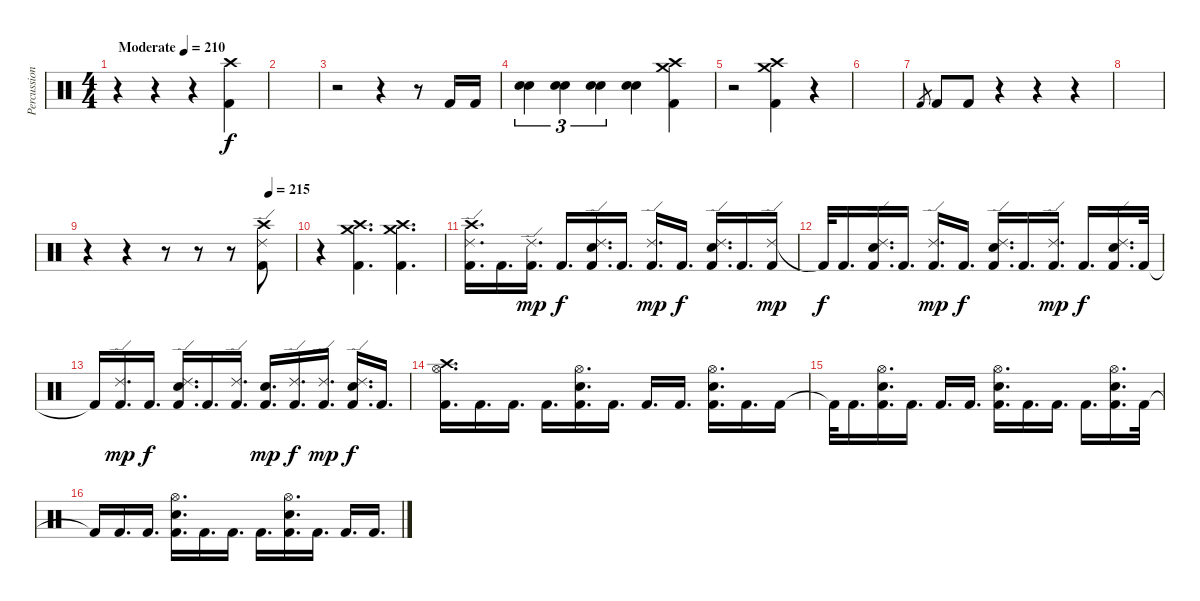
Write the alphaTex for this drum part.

\track ("Percussion" "Percussion") {instrument percussion}
\staff {score}
\articulation defaults
\ts (4 4)
\tempo (210 "Moderate")
\clef neutral
\ks c
r.4{dy f} r.4 r.4 ("Crash high (hit)" "Kick (hit) 2").4 |
|
r.2 r.4 r.8 "Kick (hit) 2".16 "Kick (hit) 2".16 |
("Electric Snare (hit)" "Electric Snare (hit)").4{tu (3 2)} ("Electric Snare (hit)" "Electric Snare (hit)").4{tu (3 2)} ("Electric Snare (hit)" "Electric Snare (hit)").4{tu (3 2)} ("Electric Snare (hit)" "Electric Snare (hit)").4 ("Crash medium (hit)" "Crash high (hit)" "Kick (hit) 2").4 |
r.2 ("Crash medium (hit)" "Crash high (hit)" "Kick (hit) 2").4 r.4 |
|
"Kick (hit) 2".8{gr} "Kick (hit) 2".8 "Kick (hit) 2".8 r.4 r.4 r.4 |
|
\tempo (215 0.875)
r.4 r.4 r.8 r.8 r.8 ("Ride (edge) 2" "Crash high (hit)" "Kick (hit) 2").8 |
r.4 ("Crash medium (hit)" "Crash high (hit)" "Kick (hit) 2").4{d} ("Crash medium (hit)" "Crash high (hit)" "Kick (hit) 2").4{d} |
("Crash high (hit)" "Ride (edge) 2" "Kick (hit) 2").16{d} "Kick (hit) 2".16{d} ("Ride (edge) 2" "Kick (hit) 2").16{d dy mp} "Kick (hit) 2".16{d dy f} ("Ride (edge) 2" "Electric Snare (hit)" "Kick (hit) 2").16{d} "Kick (hit) 2".16{d} ("Ride (edge) 2" "Kick (hit) 2").16{d dy mp} "Kick (hit) 2".16{d dy f} ("Ride (edge) 2" "Electric Snare (hit)" "Kick (hit) 2").16{d} "Kick (hit) 2".16{d} ("Ride (edge) 2" "Kick (hit) 2").16{dy mp} |
"Kick (hit) 2"{t}.32{dy f} "Kick (hit) 2".16{d} ("Ride (edge) 2" "Electric Snare (hit)" "Kick (hit) 2").16{d} "Kick (hit) 2".16{d} ("Ride (edge) 2" "Kick (hit) 2").16{d dy mp} "Kick (hit) 2".16{d dy f} ("Ride (edge) 2" "Electric Snare (hit)" "Kick (hit) 2").16{d} "Kick (hit) 2".16{d} ("Ride (edge) 2" "Kick (hit) 2").16{d dy mp} "Kick (hit) 2".16{d dy f} ("Ride (edge) 2" "Electric Snare (hit)" "Kick (hit) 2").16{d} "Kick (hit) 2".32 |
"Kick (hit) 2"{t}.16 ("Ride (edge) 2" "Kick (hit) 2").16{d dy mp} "Kick (hit) 2".16{d dy f} ("Ride (edge) 2" "Electric Snare (hit)" "Kick (hit) 2").16{d} "Kick (hit) 2".16{d} ("Ride (edge) 2" "Kick (hit) 2").16{d} ("Electric Snare (hit)" "Kick (hit) 2").16{d dy mp} ("Ride (edge) 2" "Kick (hit) 2").16{d dy f} ("Ride (edge) 2" "Kick (hit) 2").16{d dy mp} ("Ride (edge) 2" "Electric Snare (hit)" "Kick (hit) 2").16{d dy f} "Kick (hit) 2".16{d} |
("Crash high (hit)" "Hi-Hat (open)" "Kick (hit) 2").16{d} "Kick (hit) 2".16{d} "Kick (hit) 2".16{d} "Kick (hit) 2".16{d} ("Hi-Hat (open)" "Electric Snare (hit)" "Kick (hit) 2").16{d} "Kick (hit) 2".16{d} "Kick (hit) 2".16{d} "Kick (hit) 2".16{d} ("Hi-Hat (open)" "Electric Snare (hit)" "Kick (hit) 2").16{d} "Kick (hit) 2".16{d} "Kick (hit) 2".16 |
"Kick (hit) 2"{t}.32 "Kick (hit) 2".16{d} ("Hi-Hat (open)" "Electric Snare (hit)" "Kick (hit) 2").16{d} "Kick (hit) 2".16{d} "Kick (hit) 2".16{d} "Kick (hit) 2".16{d} ("Hi-Hat (open)" "Electric Snare (hit)" "Kick (hit) 2").16{d} "Kick (hit) 2".16{d} "Kick (hit) 2".16{d} "Kick (hit) 2".16{d} ("Hi-Hat (open)" "Electric Snare (hit)" "Kick (hit) 2").16{d} "Kick (hit) 2".32 |
"Kick (hit) 2"{t}.16 "Kick (hit) 2".16{d} "Kick (hit) 2".16{d} ("Hi-Hat (open)" "Electric Snare (hit)" "Kick (hit) 2").16{d} "Kick (hit) 2".16{d} "Kick (hit) 2".16{d} "Kick (hit) 2".16{d} ("Hi-Hat (open)" "Electric Snare (hit)" "Kick (hit) 2").16{d} "Kick (hit) 2".16{d} "Kick (hit) 2".16{d} "Kick (hit) 2".16{d}
